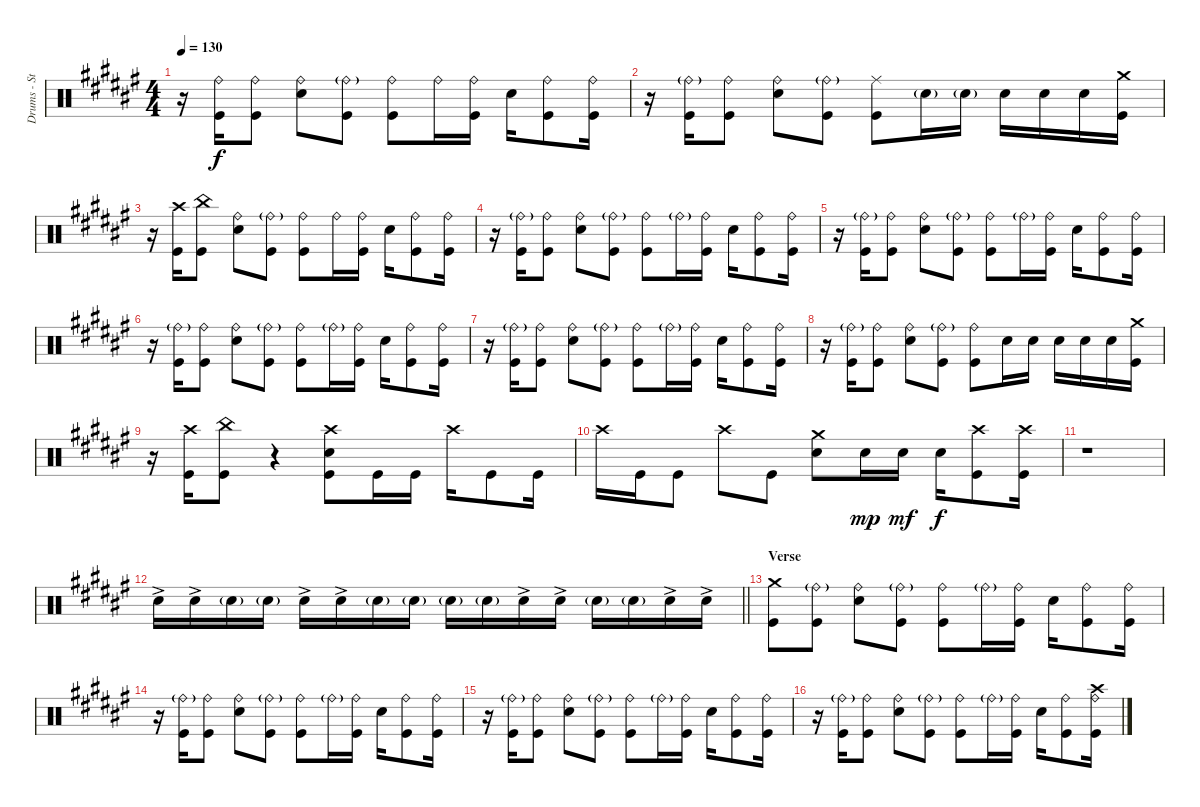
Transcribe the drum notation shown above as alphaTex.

\track ("Drums - Stef Broks" "Drums - St") {instrument percussion}
\staff {score}
\articulation defaults
\ts (4 4)
\tempo 130
\clef neutral
\ks d#minor
r.16{dy f} ("Kick (hit)" "Ride (bell)").16 ("Kick (hit)" "Ride (bell)").8 ("Ride (bell)" "Snare (hit) 2").8 ("Ride (bell)"{g} "Kick (hit)").8 ("Ride (bell)" "Kick (hit)").8 "Ride (bell)".16 ("Ride (bell)" "Kick (hit)").16 "Snare (hit) 2".16 ("Kick (hit)" "Ride (bell)").8 ("Kick (hit)" "Ride (bell)").16 |
r.16 ("Kick (hit)" "Ride (bell)"{g}).16 ("Kick (hit)" "Ride (bell)").8 ("Ride (bell)" "Snare (hit) 2").8 ("Ride (bell)"{g} "Kick (hit)").8 ("Kick (hit)" "Ride (middle)").8 "Snare (hit) 2"{g}.16 "Snare (hit) 2"{g}.16 "Snare (hit) 2".16 "Snare (hit) 2".16 "Snare (hit) 2".16 ("Kick (hit)" "Crash medium (hit)").16 |
r.16 ("Crash high (hit)" "Kick (hit)").16 ("Kick (hit)" "China (hit)").8 ("Ride (bell)" "Snare (hit) 2").8 ("Ride (bell)"{g} "Kick (hit)").8 ("Ride (bell)" "Kick (hit)").8 "Ride (bell)".16 ("Ride (bell)" "Kick (hit)").16 "Snare (hit) 2".16 ("Kick (hit)" "Ride (bell)").8 ("Kick (hit)" "Ride (bell)").16 |
r.16 ("Kick (hit)" "Ride (bell)"{g}).16 ("Kick (hit)" "Ride (bell)").8 ("Ride (bell)" "Snare (hit) 2").8 ("Ride (bell)"{g} "Kick (hit)").8 ("Ride (bell)" "Kick (hit)").8 "Ride (bell)"{g}.16 ("Ride (bell)" "Kick (hit)").16 "Snare (hit) 2".16 ("Kick (hit)" "Ride (bell)").8 ("Kick (hit)" "Ride (bell)").16 |
r.16 ("Kick (hit)" "Ride (bell)"{g}).16 ("Kick (hit)" "Ride (bell)").8 ("Ride (bell)" "Snare (hit) 2").8 ("Ride (bell)"{g} "Kick (hit)").8 ("Ride (bell)" "Kick (hit)").8 "Ride (bell)"{g}.16 ("Ride (bell)" "Kick (hit)").16 "Snare (hit) 2".16 ("Kick (hit)" "Ride (bell)").8 ("Kick (hit)" "Ride (bell)").16 |
r.16 ("Kick (hit)" "Ride (bell)"{g}).16 ("Kick (hit)" "Ride (bell)").8 ("Ride (bell)" "Snare (hit) 2").8 ("Ride (bell)"{g} "Kick (hit)").8 ("Ride (bell)" "Kick (hit)").8 "Ride (bell)"{g}.16 ("Ride (bell)" "Kick (hit)").16 "Snare (hit) 2".16 ("Kick (hit)" "Ride (bell)").8 ("Kick (hit)" "Ride (bell)").16 |
r.16 ("Kick (hit)" "Ride (bell)"{g}).16 ("Kick (hit)" "Ride (bell)").8 ("Ride (bell)" "Snare (hit) 2").8 ("Ride (bell)"{g} "Kick (hit)").8 ("Ride (bell)" "Kick (hit)").8 "Ride (bell)"{g}.16 ("Ride (bell)" "Kick (hit)").16 "Snare (hit) 2".16 ("Kick (hit)" "Ride (bell)").8 ("Kick (hit)" "Ride (bell)").16 |
r.16 ("Kick (hit)" "Ride (bell)"{g}).16 ("Kick (hit)" "Ride (bell)").8 ("Ride (bell)" "Snare (hit) 2").8 ("Ride (bell)"{g} "Kick (hit)").8 ("Ride (bell)" "Kick (hit)").8 "Snare (hit) 2".16 "Snare (hit) 2".16 "Snare (hit) 2".16 "Snare (hit) 2".16 "Snare (hit) 2".16 ("Kick (hit)" "Crash medium (hit)").16 |
r.16 ("Kick (hit)" "Crash high (hit)").16 ("Kick (hit)" "China (hit)").8 r.4 ("Snare (hit) 2" "Kick (hit)" "Crash high (hit)").8 "Kick (hit)".16 "Kick (hit)".16 "Crash high (hit)".16 "Kick (hit)".8 "Kick (hit)".16 |
"Crash high (hit)".16 "Kick (hit)".16 "Kick (hit)".8 "Crash high (hit)".8 "Kick (hit)".8 ("Snare (hit) 2" "Crash medium (hit)").8 "Snare (hit) 2".16{dy mp} "Snare (hit) 2".16{dy mf} "Snare (hit) 2".16{dy f} ("Kick (hit)" "Crash high (hit)").8 ("Kick (hit)" "Crash high (hit)").16 |
r.1 |
\barLineRight lightlight "Snare (hit) 2"{ac}.16 "Snare (hit) 2"{ac}.16 "Snare (hit) 2"{g}.16 "Snare (hit) 2"{g}.16 "Snare (hit) 2"{ac}.16 "Snare (hit) 2"{ac}.16 "Snare (hit) 2"{g}.16 "Snare (hit) 2"{g}.16 "Snare (hit) 2"{g}.16 "Snare (hit) 2"{g}.16 "Snare (hit) 2"{ac}.16 "Snare (hit) 2"{ac}.16 "Snare (hit) 2"{g}.16 "Snare (hit) 2"{g}.16 "Snare (hit) 2"{ac}.16 "Snare (hit) 2"{ac}.16
|
\section ("" "Verse")
("Kick (hit)" "Crash medium (hit)").8 ("Kick (hit)" "Ride (bell)"{g}).8 ("Snare (hit) 2" "Ride (bell)").8 ("Kick (hit)" "Ride (bell)"{g}).8 ("Kick (hit)" "Ride (bell)").8 "Ride (bell)"{g}.16 ("Kick (hit)" "Ride (bell)").16 "Snare (hit) 2".16 ("Kick (hit)" "Ride (bell)").8 ("Ride (bell)" "Kick (hit)").16 |
r.16 ("Kick (hit)" "Ride (bell)"{g}).16 ("Kick (hit)" "Ride (bell)").8 ("Ride (bell)" "Snare (hit) 2").8 ("Ride (bell)"{g} "Kick (hit)").8 ("Ride (bell)" "Kick (hit)").8 "Ride (bell)"{g}.16 ("Ride (bell)" "Kick (hit)").16 "Snare (hit) 2".16 ("Kick (hit)" "Ride (bell)").8 ("Kick (hit)" "Ride (bell)").16 |
r.16 ("Kick (hit)" "Ride (bell)"{g}).16 ("Kick (hit)" "Ride (bell)").8 ("Ride (bell)" "Snare (hit) 2").8 ("Ride (bell)"{g} "Kick (hit)").8 ("Ride (bell)" "Kick (hit)").8 "Ride (bell)"{g}.16 ("Ride (bell)" "Kick (hit)").16 "Snare (hit) 2".16 ("Kick (hit)" "Ride (bell)").8 ("Kick (hit)" "Ride (bell)").16 |
r.16 ("Kick (hit)" "Ride (bell)"{g}).16 ("Kick (hit)" "Ride (bell)").8 ("Ride (bell)" "Snare (hit) 2").8 ("Ride (bell)"{g} "Kick (hit)").8 ("Ride (bell)" "Kick (hit)").8 "Ride (bell)"{g}.16 ("Ride (bell)" "Kick (hit)").16 "Snare (hit) 2".16 ("Kick (hit)" "Ride (bell)").8 ("Kick (hit)" "Ride (bell)" "Crash high (hit)").16
